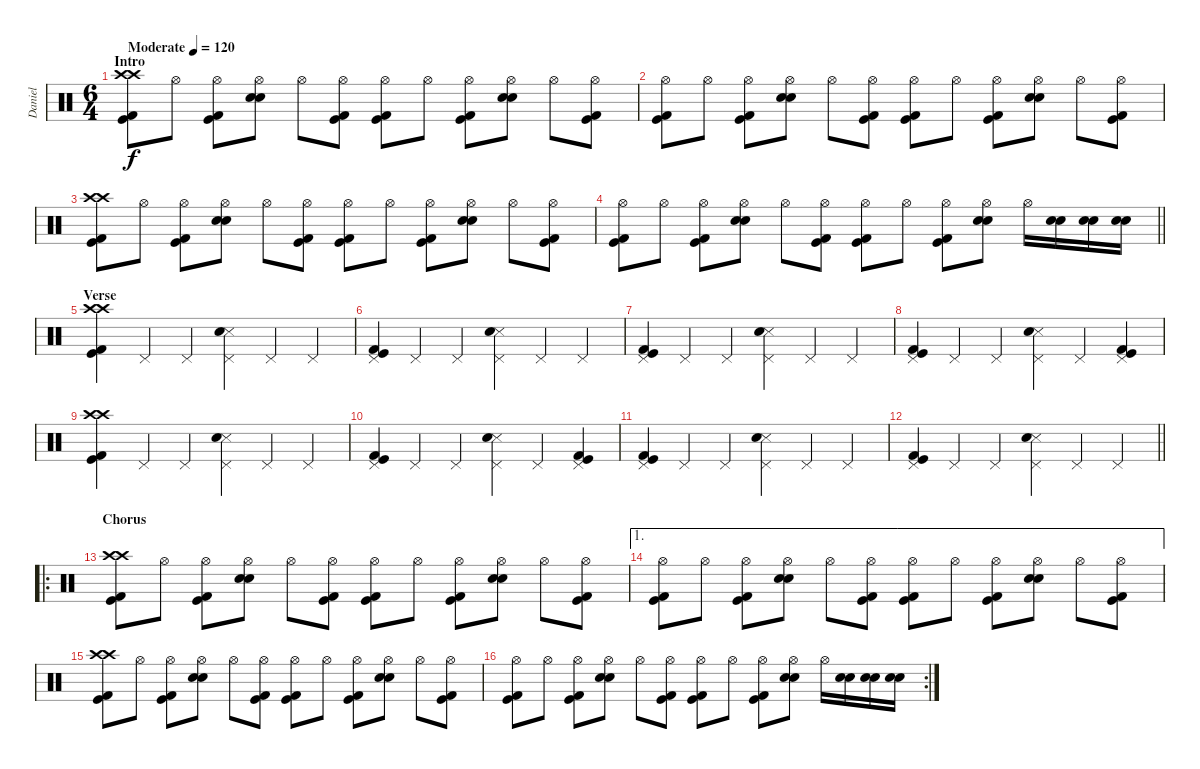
\track ("Daniel" "Daniel") {instrument percussion}
\staff {score}
\articulation defaults
\ts (6 4)
\section ("" "Intro")
\tempo (120 "Moderate")
\clef neutral
\ks c
("Crash high (hit)" "Crash high (hit)" "Kick (hit) 2" "Kick (hit)").8{dy f} "Hi-Hat (open)".8 ("Hi-Hat (open)" "Kick (hit) 2" "Kick (hit)").8 ("Hi-Hat (open)" "Snare (hit) 2" "Electric Snare (hit)").8 "Hi-Hat (open)".8 ("Hi-Hat (open)" "Kick (hit) 2" "Kick (hit)").8 ("Hi-Hat (open)" "Kick (hit) 2" "Kick (hit)").8 "Hi-Hat (open)".8 ("Hi-Hat (open)" "Kick (hit) 2" "Kick (hit)").8 ("Hi-Hat (open)" "Snare (hit) 2" "Electric Snare (hit)").8 "Hi-Hat (open)".8 ("Hi-Hat (open)" "Kick (hit) 2" "Kick (hit)").8 |
("Hi-Hat (open)" "Kick (hit) 2" "Kick (hit)").8 "Hi-Hat (open)".8 ("Hi-Hat (open)" "Kick (hit) 2" "Kick (hit)").8 ("Hi-Hat (open)" "Snare (hit) 2" "Electric Snare (hit)").8 "Hi-Hat (open)".8 ("Hi-Hat (open)" "Kick (hit) 2" "Kick (hit)").8 ("Hi-Hat (open)" "Kick (hit) 2" "Kick (hit)").8 "Hi-Hat (open)".8 ("Hi-Hat (open)" "Kick (hit) 2" "Kick (hit)").8 ("Hi-Hat (open)" "Snare (hit) 2" "Electric Snare (hit)").8 "Hi-Hat (open)".8 ("Hi-Hat (open)" "Kick (hit) 2" "Kick (hit)").8 |
("Crash high (hit)" "Crash high (hit)" "Kick (hit) 2" "Kick (hit)").8 "Hi-Hat (open)".8 ("Hi-Hat (open)" "Kick (hit) 2" "Kick (hit)").8 ("Hi-Hat (open)" "Snare (hit) 2" "Electric Snare (hit)").8 "Hi-Hat (open)".8 ("Hi-Hat (open)" "Kick (hit) 2" "Kick (hit)").8 ("Hi-Hat (open)" "Kick (hit) 2" "Kick (hit)").8 "Hi-Hat (open)".8 ("Hi-Hat (open)" "Kick (hit) 2" "Kick (hit)").8 ("Hi-Hat (open)" "Snare (hit) 2" "Electric Snare (hit)").8 "Hi-Hat (open)".8 ("Hi-Hat (open)" "Kick (hit) 2" "Kick (hit)").8 |
\barLineRight lightlight
("Hi-Hat (open)" "Kick (hit) 2" "Kick (hit)").8 "Hi-Hat (open)".8 ("Hi-Hat (open)" "Kick (hit) 2" "Kick (hit)").8 ("Hi-Hat (open)" "Snare (hit) 2" "Electric Snare (hit)").8 "Hi-Hat (open)".8 ("Hi-Hat (open)" "Kick (hit) 2" "Kick (hit)").8 ("Hi-Hat (open)" "Kick (hit) 2" "Kick (hit)").8 "Hi-Hat (open)".8 ("Hi-Hat (open)" "Kick (hit) 2" "Kick (hit)").8 ("Hi-Hat (open)" "Snare (hit) 2" "Electric Snare (hit)").8 "Hi-Hat (open)".16 ("Snare (hit) 2" "Electric Snare (hit)").16 ("Snare (hit) 2" "Electric Snare (hit)").16 ("Snare (hit) 2" "Electric Snare (hit)").16 |
\section ("" "Verse")
("Crash high (hit)" "Crash high (hit)" "Kick (hit) 2" "Kick (hit)").4 "Pedal Hi-Hat (hit)".4 "Pedal Hi-Hat (hit)".4 ("Pedal Hi-Hat (hit)" "Snare (side stick) 3" "Electric Snare (hit)").4 "Pedal Hi-Hat (hit)".4 "Pedal Hi-Hat (hit)".4 |
("Pedal Hi-Hat (hit)" "Kick (hit) 2" "Kick (hit)").4 "Pedal Hi-Hat (hit)".4 "Pedal Hi-Hat (hit)".4 ("Pedal Hi-Hat (hit)" "Snare (side stick) 3" "Electric Snare (hit)").4 "Pedal Hi-Hat (hit)".4 "Pedal Hi-Hat (hit)".4 |
("Pedal Hi-Hat (hit)" "Kick (hit) 2" "Kick (hit)").4 "Pedal Hi-Hat (hit)".4 "Pedal Hi-Hat (hit)".4 ("Pedal Hi-Hat (hit)" "Snare (side stick) 3" "Electric Snare (hit)").4 "Pedal Hi-Hat (hit)".4 "Pedal Hi-Hat (hit)".4 |
("Pedal Hi-Hat (hit)" "Kick (hit) 2" "Kick (hit)").4 "Pedal Hi-Hat (hit)".4 "Pedal Hi-Hat (hit)".4 ("Pedal Hi-Hat (hit)" "Snare (side stick) 3" "Electric Snare (hit)").4 "Pedal Hi-Hat (hit)".4 ("Pedal Hi-Hat (hit)" "Kick (hit) 2" "Kick (hit)").4 |
("Crash high (hit)" "Crash high (hit)" "Kick (hit) 2" "Kick (hit)").4 "Pedal Hi-Hat (hit)".4 "Pedal Hi-Hat (hit)".4 ("Pedal Hi-Hat (hit)" "Snare (side stick) 3" "Electric Snare (hit)").4 "Pedal Hi-Hat (hit)".4 "Pedal Hi-Hat (hit)".4 |
("Pedal Hi-Hat (hit)" "Kick (hit) 2" "Kick (hit)").4 "Pedal Hi-Hat (hit)".4 "Pedal Hi-Hat (hit)".4 ("Pedal Hi-Hat (hit)" "Snare (side stick) 3" "Electric Snare (hit)").4 "Pedal Hi-Hat (hit)".4 ("Pedal Hi-Hat (hit)" "Kick (hit) 2" "Kick (hit)").4 |
("Pedal Hi-Hat (hit)" "Kick (hit) 2" "Kick (hit)").4 "Pedal Hi-Hat (hit)".4 "Pedal Hi-Hat (hit)".4 ("Pedal Hi-Hat (hit)" "Snare (side stick) 3" "Electric Snare (hit)").4 "Pedal Hi-Hat (hit)".4 "Pedal Hi-Hat (hit)".4 |
\barLineRight lightlight
("Pedal Hi-Hat (hit)" "Kick (hit) 2" "Kick (hit)").4 "Pedal Hi-Hat (hit)".4 "Pedal Hi-Hat (hit)".4 ("Pedal Hi-Hat (hit)" "Snare (side stick) 3" "Electric Snare (hit)").4 "Pedal Hi-Hat (hit)".4 "Pedal Hi-Hat (hit)".4 |
\ro
\section ("" "Chorus")
("Crash high (hit)" "Crash high (hit)" "Kick (hit) 2" "Kick (hit)").8 "Hi-Hat (open)".8 ("Hi-Hat (open)" "Kick (hit) 2" "Kick (hit)").8 ("Hi-Hat (open)" "Snare (hit) 2" "Electric Snare (hit)").8 "Hi-Hat (open)".8 ("Hi-Hat (open)" "Kick (hit) 2" "Kick (hit)").8 ("Hi-Hat (open)" "Kick (hit) 2" "Kick (hit)").8 "Hi-Hat (open)".8 ("Hi-Hat (open)" "Kick (hit) 2" "Kick (hit)").8 ("Hi-Hat (open)" "Snare (hit) 2" "Electric Snare (hit)").8 "Hi-Hat (open)".8 ("Hi-Hat (open)" "Kick (hit) 2" "Kick (hit)").8 |
\ae 1
("Hi-Hat (open)" "Kick (hit) 2" "Kick (hit)").8 "Hi-Hat (open)".8 ("Hi-Hat (open)" "Kick (hit) 2" "Kick (hit)").8 ("Hi-Hat (open)" "Snare (hit) 2" "Electric Snare (hit)").8 "Hi-Hat (open)".8 ("Hi-Hat (open)" "Kick (hit) 2" "Kick (hit)").8 ("Hi-Hat (open)" "Kick (hit) 2" "Kick (hit)").8 "Hi-Hat (open)".8 ("Hi-Hat (open)" "Kick (hit) 2" "Kick (hit)").8 ("Hi-Hat (open)" "Snare (hit) 2" "Electric Snare (hit)").8 "Hi-Hat (open)".8 ("Hi-Hat (open)" "Kick (hit) 2" "Kick (hit)").8 |
("Crash high (hit)" "Crash high (hit)" "Kick (hit) 2" "Kick (hit)").8 "Hi-Hat (open)".8 ("Hi-Hat (open)" "Kick (hit) 2" "Kick (hit)").8 ("Hi-Hat (open)" "Snare (hit) 2" "Electric Snare (hit)").8 "Hi-Hat (open)".8 ("Hi-Hat (open)" "Kick (hit) 2" "Kick (hit)").8 ("Hi-Hat (open)" "Kick (hit) 2" "Kick (hit)").8 "Hi-Hat (open)".8 ("Hi-Hat (open)" "Kick (hit) 2" "Kick (hit)").8 ("Hi-Hat (open)" "Snare (hit) 2" "Electric Snare (hit)").8 "Hi-Hat (open)".8 ("Hi-Hat (open)" "Kick (hit) 2" "Kick (hit)").8 |
\rc 2
("Hi-Hat (open)" "Kick (hit) 2" "Kick (hit)").8 "Hi-Hat (open)".8 ("Hi-Hat (open)" "Kick (hit) 2" "Kick (hit)").8 ("Hi-Hat (open)" "Snare (hit) 2" "Electric Snare (hit)").8 "Hi-Hat (open)".8 ("Hi-Hat (open)" "Kick (hit) 2" "Kick (hit)").8 ("Hi-Hat (open)" "Kick (hit) 2" "Kick (hit)").8 "Hi-Hat (open)".8 ("Hi-Hat (open)" "Kick (hit) 2" "Kick (hit)").8 ("Hi-Hat (open)" "Snare (hit) 2" "Electric Snare (hit)").8 "Hi-Hat (open)".16 ("Snare (hit) 2" "Electric Snare (hit)").16 ("Snare (hit) 2" "Electric Snare (hit)").16 ("Snare (hit) 2" "Electric Snare (hit)").16
